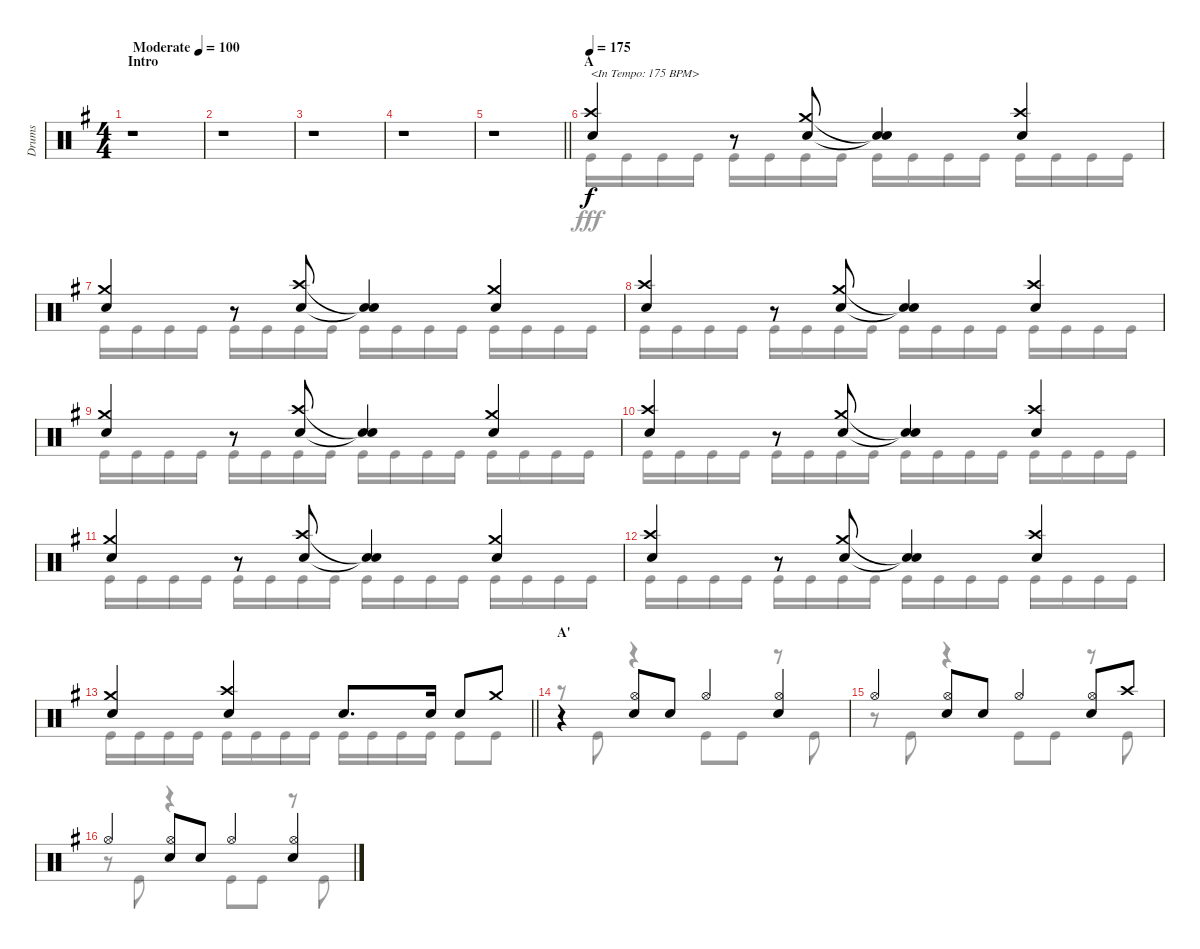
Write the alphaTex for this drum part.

\track ("Drums" "Drums") {instrument percussion}
\staff {score}
\articulation defaults
\voice
\ts (4 4)
\section ("" "Intro")
\tempo (100 "Moderate")
\clef neutral
\ks g
r.1{dy f} |
r.1 |
r.1 |
r.1 |
\barLineRight lightlight
r.1 |
\section ("" "A")
\tempo 175
("Crash high (hit)" "Snare (hit) 2").4{txt "<In Tempo: 175 BPM>"} r.8 ("Crash medium (hit)" "Snare (hit) 2").8 ("Snare (hit)"{t} "Snare (hit)"{t}).4 ("Crash high (hit)" "Snare (hit) 2").4 |
("Crash medium (hit)" "Snare (hit) 2").4 r.8 ("Crash high (hit)" "Snare (hit) 2").8 ("Snare (hit)"{t} "Snare (hit)"{t}).4 ("Crash medium (hit)" "Snare (hit) 2").4 |
("Crash high (hit)" "Snare (hit) 2").4 r.8 ("Crash medium (hit)" "Snare (hit) 2").8 ("Snare (hit)"{t} "Snare (hit)"{t}).4 ("Crash high (hit)" "Snare (hit) 2").4 |
("Crash medium (hit)" "Snare (hit) 2").4 r.8 ("Crash high (hit)" "Snare (hit) 2").8 ("Snare (hit)"{t} "Snare (hit)"{t}).4 ("Crash medium (hit)" "Snare (hit) 2").4 |
("Crash high (hit)" "Snare (hit) 2").4 r.8 ("Crash medium (hit)" "Snare (hit) 2").8 ("Snare (hit)"{t} "Snare (hit)"{t}).4 ("Crash high (hit)" "Snare (hit) 2").4 |
("Crash medium (hit)" "Snare (hit) 2").4 r.8 ("Crash high (hit)" "Snare (hit) 2").8 ("Snare (hit)"{t} "Snare (hit)"{t}).4 ("Crash medium (hit)" "Snare (hit) 2").4 |
("Crash high (hit)" "Snare (hit) 2").4 r.8 ("Crash medium (hit)" "Snare (hit) 2").8 ("Snare (hit)"{t} "Snare (hit)"{t}).4 ("Crash high (hit)" "Snare (hit) 2").4 |
\barLineRight lightlight
("Crash medium (hit)" "Snare (hit) 2").4 ("Crash high (hit)" "Snare (hit) 2").4 "Snare (hit) 2".8{d} "Snare (hit) 2".16 "Snare (hit) 2".8 "Crash medium (hit)".8 |
\section ("" "A'")
r.4 ("Hi-Hat (open)" "Snare (hit) 2").8 "Snare (hit) 2".8 "Hi-Hat (open)".4 ("Hi-Hat (open)" "Snare (hit) 2").4 |
"Hi-Hat (open)".4 ("Hi-Hat (open)" "Snare (hit) 2").8 "Snare (hit) 2".8 "Hi-Hat (open)".4 ("Hi-Hat (open)" "Snare (hit) 2").8 "Crash high (hit)".8 |
"Hi-Hat (open)".4 ("Hi-Hat (open)" "Snare (hit) 2").8 "Snare (hit) 2".8 "Hi-Hat (open)".4 ("Hi-Hat (open)" "Snare (hit) 2").4
\voice
\clef neutral
\ottava regular
\simile none
\ks g
r.1{dy fff} |
r.1 |
r.1 |
r.1 |
\barLineRight lightlight
r.1 |
"Kick (hit)".16 "Kick (hit)".16 "Kick (hit)".16 "Kick (hit)".16 "Kick (hit)".16 "Kick (hit)".16 "Kick (hit)".16 "Kick (hit)".16 "Kick (hit)".16 "Kick (hit)".16 "Kick (hit)".16 "Kick (hit)".16 "Kick (hit)".16 "Kick (hit)".16 "Kick (hit)".16 "Kick (hit)".16 |
"Kick (hit)".16 "Kick (hit)".16 "Kick (hit)".16 "Kick (hit)".16 "Kick (hit)".16 "Kick (hit)".16 "Kick (hit)".16 "Kick (hit)".16 "Kick (hit)".16 "Kick (hit)".16 "Kick (hit)".16 "Kick (hit)".16 "Kick (hit)".16 "Kick (hit)".16 "Kick (hit)".16 "Kick (hit)".16 |
"Kick (hit)".16 "Kick (hit)".16 "Kick (hit)".16 "Kick (hit)".16 "Kick (hit)".16 "Kick (hit)".16 "Kick (hit)".16 "Kick (hit)".16 "Kick (hit)".16 "Kick (hit)".16 "Kick (hit)".16 "Kick (hit)".16 "Kick (hit)".16 "Kick (hit)".16 "Kick (hit)".16 "Kick (hit)".16 |
"Kick (hit)".16 "Kick (hit)".16 "Kick (hit)".16 "Kick (hit)".16 "Kick (hit)".16 "Kick (hit)".16 "Kick (hit)".16 "Kick (hit)".16 "Kick (hit)".16 "Kick (hit)".16 "Kick (hit)".16 "Kick (hit)".16 "Kick (hit)".16 "Kick (hit)".16 "Kick (hit)".16 "Kick (hit)".16 |
"Kick (hit)".16 "Kick (hit)".16 "Kick (hit)".16 "Kick (hit)".16 "Kick (hit)".16 "Kick (hit)".16 "Kick (hit)".16 "Kick (hit)".16 "Kick (hit)".16 "Kick (hit)".16 "Kick (hit)".16 "Kick (hit)".16 "Kick (hit)".16 "Kick (hit)".16 "Kick (hit)".16 "Kick (hit)".16 |
"Kick (hit)".16 "Kick (hit)".16 "Kick (hit)".16 "Kick (hit)".16 "Kick (hit)".16 "Kick (hit)".16 "Kick (hit)".16 "Kick (hit)".16 "Kick (hit)".16 "Kick (hit)".16 "Kick (hit)".16 "Kick (hit)".16 "Kick (hit)".16 "Kick (hit)".16 "Kick (hit)".16 "Kick (hit)".16 |
"Kick (hit)".16 "Kick (hit)".16 "Kick (hit)".16 "Kick (hit)".16 "Kick (hit)".16 "Kick (hit)".16 "Kick (hit)".16 "Kick (hit)".16 "Kick (hit)".16 "Kick (hit)".16 "Kick (hit)".16 "Kick (hit)".16 "Kick (hit)".16 "Kick (hit)".16 "Kick (hit)".16 "Kick (hit)".16 |
\barLineRight lightlight "Kick (hit)".16 "Kick (hit)".16 "Kick (hit)".16 "Kick (hit)".16 "Kick (hit)".16 "Kick (hit)".16 "Kick (hit)".16 "Kick (hit)".16 "Kick (hit)".16 "Kick (hit)".16 "Kick (hit)".16 "Kick (hit)".16 "Kick (hit)".8 "Kick (hit)".8
|
r.8 "Kick (hit)".8 r.4 "Kick (hit)".8 "Kick (hit)".8 r.8 "Kick (hit)".8 |
r.8 "Kick (hit)".8 r.4 "Kick (hit)".8 "Kick (hit)".8 r.8 "Kick (hit)".8 |
r.8 "Kick (hit)".8 r.4 "Kick (hit)".8 "Kick (hit)".8 r.8 "Kick (hit)".8
